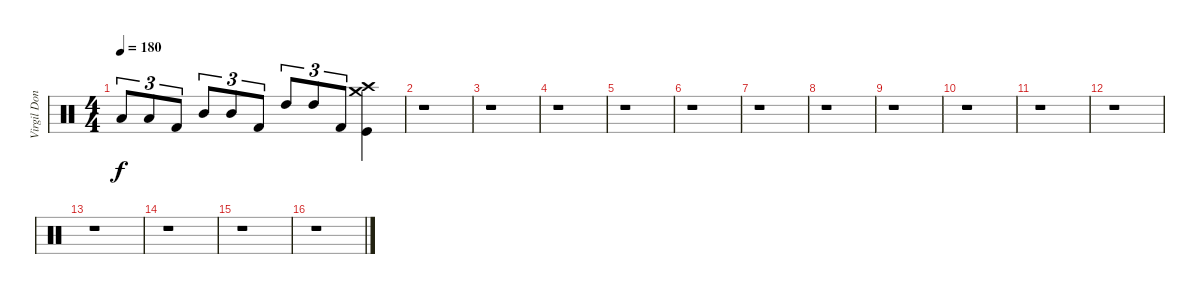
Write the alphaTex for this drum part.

\track ("Virgil Donati" "Virgil Don") {instrument percussion}
\staff {score}
\articulation defaults
\ts (4 4)
\tempo 180
\clef neutral
\ks c "Low Tom (hit)".8{tu (3 2) dy f} "Low Tom (hit)".8{tu (3 2)} "Kick (hit) 2".8{tu (3 2)} "Mid Tom (hit)".8{tu (3 2)} "Mid Tom (hit)".8{tu (3 2)} "Kick (hit) 2".8{tu (3 2)} "High Tom (hit)".8{tu (3 2)} "High Tom (hit)".8{tu (3 2)} "Kick (hit) 2".8{tu (3 2)}
("Crash high (hit)" "Crash medium (hit)" "Kick (hit)").4 |
r.1 |
r.1 |
r.1 |
r.1 |
r.1 |
r.1 |
r.1 |
r.1 |
r.1 |
r.1 |
r.1 |
r.1 |
r.1 |
r.1 |
r.1
